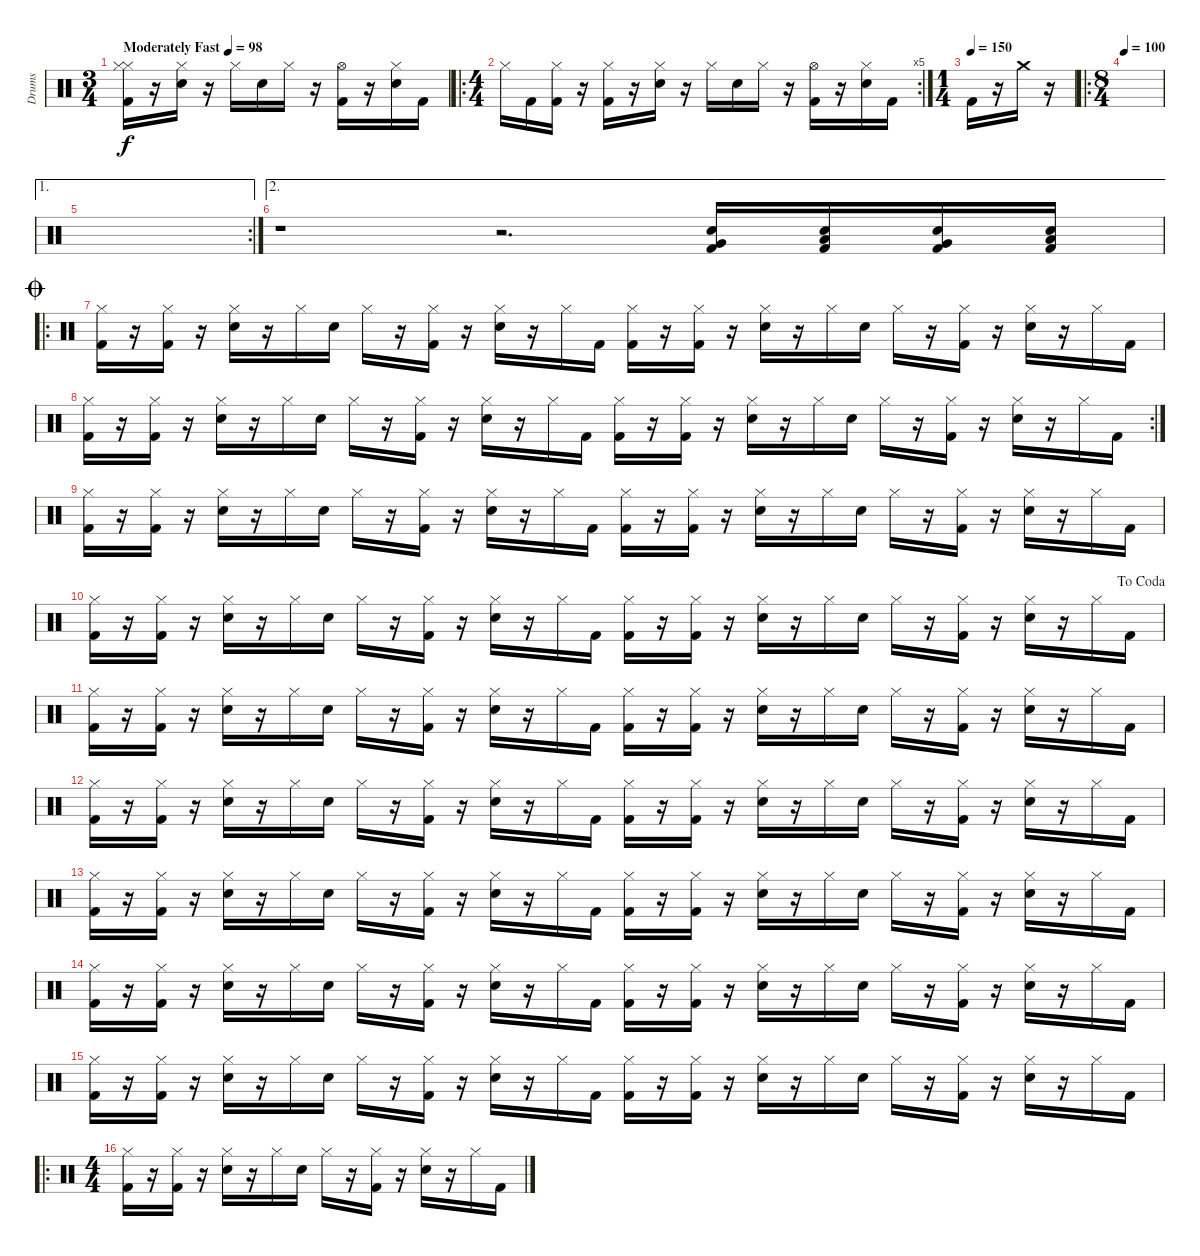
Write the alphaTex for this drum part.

\track ("Drums" "Drums") {instrument percussion}
\staff {score}
\articulation defaults
\ts (3 4)
\tempo (98 "Moderately Fast")
\clef neutral
\ks c
("Kick (hit) 2" "Hi-Hat (closed)" "Hi-Hat (closed)").16{dy f} r.16 ("Electric Snare (hit)" "Hi-Hat (closed)").16 r.16 "Hi-Hat (closed)".16 "Electric Snare (hit)".16 "Hi-Hat (closed)".16 r.16 ("Kick (hit) 2" "Hi-Hat (open)").16 r.16 ("Electric Snare (hit)" "Hi-Hat (closed)").16 "Kick (hit) 2".16 |
\ro
\rc 5
\ts (4 4)
"Hi-Hat (closed)".16 "Kick (hit) 2".16 ("Kick (hit) 2" "Hi-Hat (closed)").16 r.16 ("Kick (hit) 2" "Hi-Hat (closed)").16 r.16 ("Electric Snare (hit)" "Hi-Hat (closed)").16 r.16 "Hi-Hat (closed)".16 "Electric Snare (hit)".16 "Hi-Hat (closed)".16 r.16 ("Kick (hit) 2" "Hi-Hat (open)").16 r.16 ("Electric Snare (hit)" "Hi-Hat (closed)").16 "Kick (hit) 2".16 |
\ts (1 4)
\tempo (150)
"Kick (hit) 2".16 r.16 "Crash medium (hit)".16 r.16 |
\ro
\ts (8 4)
\tempo 100
|
\ae 1
\rc 2
|
\ae 2
r.1 r.2{d} ("Kick (hit) 2" "Electric Snare (hit)" "Very Low Tom (hit)").16 ("Kick (hit) 2" "Electric Snare (hit)" "Low Tom (hit)").16 ("Kick (hit) 2" "Electric Snare (hit)" "Very Low Tom (hit)").16 ("Kick (hit) 2" "Electric Snare (hit)" "Low Tom (hit)").16 |
\ro
\jump coda
("Kick (hit) 2" "Hi-Hat (closed)").16 r.16 ("Kick (hit) 2" "Hi-Hat (closed)").16 r.16 ("Electric Snare (hit)" "Hi-Hat (closed)").16 r.16 "Hi-Hat (closed)".16 "Electric Snare (hit)".16 "Hi-Hat (closed)".16 r.16 ("Kick (hit) 2" "Hi-Hat (closed)").16 r.16 ("Electric Snare (hit)" "Hi-Hat (closed)").16 r.16 "Hi-Hat (closed)".16 "Kick (hit) 2".16 ("Kick (hit) 2" "Hi-Hat (closed)").16 r.16 ("Kick (hit) 2" "Hi-Hat (closed)").16 r.16 ("Electric Snare (hit)" "Hi-Hat (closed)").16 r.16 "Hi-Hat (closed)".16 "Electric Snare (hit)".16 "Hi-Hat (closed)".16 r.16 ("Kick (hit) 2" "Hi-Hat (closed)").16 r.16 ("Electric Snare (hit)" "Hi-Hat (closed)").16 r.16 "Hi-Hat (closed)".16 "Kick (hit) 2".16 |
\rc 2
("Kick (hit) 2" "Hi-Hat (closed)").16 r.16 ("Kick (hit) 2" "Hi-Hat (closed)").16 r.16 ("Electric Snare (hit)" "Hi-Hat (closed)").16 r.16 "Hi-Hat (closed)".16 "Electric Snare (hit)".16 "Hi-Hat (closed)".16 r.16 ("Kick (hit) 2" "Hi-Hat (closed)").16 r.16 ("Electric Snare (hit)" "Hi-Hat (closed)").16 r.16 "Hi-Hat (closed)".16 "Kick (hit) 2".16 ("Kick (hit) 2" "Hi-Hat (closed)").16 r.16 ("Kick (hit) 2" "Hi-Hat (closed)").16 r.16 ("Electric Snare (hit)" "Hi-Hat (closed)").16 r.16 "Hi-Hat (closed)".16 "Electric Snare (hit)".16 "Hi-Hat (closed)".16 r.16 ("Kick (hit) 2" "Hi-Hat (closed)").16 r.16 ("Electric Snare (hit)" "Hi-Hat (closed)").16 r.16 "Hi-Hat (closed)".16 "Kick (hit) 2".16 |
("Kick (hit) 2" "Hi-Hat (closed)").16 r.16 ("Kick (hit) 2" "Hi-Hat (closed)").16 r.16 ("Electric Snare (hit)" "Hi-Hat (closed)").16 r.16 "Hi-Hat (closed)".16 "Electric Snare (hit)".16 "Hi-Hat (closed)".16 r.16 ("Kick (hit) 2" "Hi-Hat (closed)").16 r.16 ("Electric Snare (hit)" "Hi-Hat (closed)").16 r.16 "Hi-Hat (closed)".16 "Kick (hit) 2".16 ("Kick (hit) 2" "Hi-Hat (closed)").16 r.16 ("Kick (hit) 2" "Hi-Hat (closed)").16 r.16 ("Electric Snare (hit)" "Hi-Hat (closed)").16 r.16 "Hi-Hat (closed)".16 "Electric Snare (hit)".16 "Hi-Hat (closed)".16 r.16 ("Kick (hit) 2" "Hi-Hat (closed)").16 r.16 ("Electric Snare (hit)" "Hi-Hat (closed)").16 r.16 "Hi-Hat (closed)".16 "Kick (hit) 2".16 |
\jump dacoda
("Kick (hit) 2" "Hi-Hat (closed)").16 r.16 ("Kick (hit) 2" "Hi-Hat (closed)").16 r.16 ("Electric Snare (hit)" "Hi-Hat (closed)").16 r.16 "Hi-Hat (closed)".16 "Electric Snare (hit)".16 "Hi-Hat (closed)".16 r.16 ("Kick (hit) 2" "Hi-Hat (closed)").16 r.16 ("Electric Snare (hit)" "Hi-Hat (closed)").16 r.16 "Hi-Hat (closed)".16 "Kick (hit) 2".16 ("Kick (hit) 2" "Hi-Hat (closed)").16 r.16 ("Kick (hit) 2" "Hi-Hat (closed)").16 r.16 ("Electric Snare (hit)" "Hi-Hat (closed)").16 r.16 "Hi-Hat (closed)".16 "Electric Snare (hit)".16 "Hi-Hat (closed)".16 r.16 ("Kick (hit) 2" "Hi-Hat (closed)").16 r.16 ("Electric Snare (hit)" "Hi-Hat (closed)").16 r.16 "Hi-Hat (closed)".16 "Kick (hit) 2".16 |
("Kick (hit) 2" "Hi-Hat (closed)").16 r.16 ("Kick (hit) 2" "Hi-Hat (closed)").16 r.16 ("Electric Snare (hit)" "Hi-Hat (closed)").16 r.16 "Hi-Hat (closed)".16 "Electric Snare (hit)".16 "Hi-Hat (closed)".16 r.16 ("Kick (hit) 2" "Hi-Hat (closed)").16 r.16 ("Electric Snare (hit)" "Hi-Hat (closed)").16 r.16 "Hi-Hat (closed)".16 "Kick (hit) 2".16 ("Kick (hit) 2" "Hi-Hat (closed)").16 r.16 ("Kick (hit) 2" "Hi-Hat (closed)").16 r.16 ("Electric Snare (hit)" "Hi-Hat (closed)").16 r.16 "Hi-Hat (closed)".16 "Electric Snare (hit)".16 "Hi-Hat (closed)".16 r.16 ("Kick (hit) 2" "Hi-Hat (closed)").16 r.16 ("Electric Snare (hit)" "Hi-Hat (closed)").16 r.16 "Hi-Hat (closed)".16 "Kick (hit) 2".16 |
("Kick (hit) 2" "Hi-Hat (closed)").16 r.16 ("Kick (hit) 2" "Hi-Hat (closed)").16 r.16 ("Electric Snare (hit)" "Hi-Hat (closed)").16 r.16 "Hi-Hat (closed)".16 "Electric Snare (hit)".16 "Hi-Hat (closed)".16 r.16 ("Kick (hit) 2" "Hi-Hat (closed)").16 r.16 ("Electric Snare (hit)" "Hi-Hat (closed)").16 r.16 "Hi-Hat (closed)".16 "Kick (hit) 2".16 ("Kick (hit) 2" "Hi-Hat (closed)").16 r.16 ("Kick (hit) 2" "Hi-Hat (closed)").16 r.16 ("Electric Snare (hit)" "Hi-Hat (closed)").16 r.16 "Hi-Hat (closed)".16 "Electric Snare (hit)".16 "Hi-Hat (closed)".16 r.16 ("Kick (hit) 2" "Hi-Hat (closed)").16 r.16 ("Electric Snare (hit)" "Hi-Hat (closed)").16 r.16 "Hi-Hat (closed)".16 "Kick (hit) 2".16 |
("Kick (hit) 2" "Hi-Hat (closed)").16 r.16 ("Kick (hit) 2" "Hi-Hat (closed)").16 r.16 ("Electric Snare (hit)" "Hi-Hat (closed)").16 r.16 "Hi-Hat (closed)".16 "Electric Snare (hit)".16 "Hi-Hat (closed)".16 r.16 ("Kick (hit) 2" "Hi-Hat (closed)").16 r.16 ("Electric Snare (hit)" "Hi-Hat (closed)").16 r.16 "Hi-Hat (closed)".16 "Kick (hit) 2".16 ("Kick (hit) 2" "Hi-Hat (closed)").16 r.16 ("Kick (hit) 2" "Hi-Hat (closed)").16 r.16 ("Electric Snare (hit)" "Hi-Hat (closed)").16 r.16 "Hi-Hat (closed)".16 "Electric Snare (hit)".16 "Hi-Hat (closed)".16 r.16 ("Kick (hit) 2" "Hi-Hat (closed)").16 r.16 ("Electric Snare (hit)" "Hi-Hat (closed)").16 r.16 "Hi-Hat (closed)".16 "Kick (hit) 2".16 |
("Kick (hit) 2" "Hi-Hat (closed)").16 r.16 ("Kick (hit) 2" "Hi-Hat (closed)").16 r.16 ("Electric Snare (hit)" "Hi-Hat (closed)").16 r.16 "Hi-Hat (closed)".16 "Electric Snare (hit)".16 "Hi-Hat (closed)".16 r.16 ("Kick (hit) 2" "Hi-Hat (closed)").16 r.16 ("Electric Snare (hit)" "Hi-Hat (closed)").16 r.16 "Hi-Hat (closed)".16 "Kick (hit) 2".16 ("Kick (hit) 2" "Hi-Hat (closed)").16 r.16 ("Kick (hit) 2" "Hi-Hat (closed)").16 r.16 ("Electric Snare (hit)" "Hi-Hat (closed)").16 r.16 "Hi-Hat (closed)".16 "Electric Snare (hit)".16 "Hi-Hat (closed)".16 r.16 ("Kick (hit) 2" "Hi-Hat (closed)").16 r.16 ("Electric Snare (hit)" "Hi-Hat (closed)").16 r.16 "Hi-Hat (closed)".16 "Kick (hit) 2".16 |
("Kick (hit) 2" "Hi-Hat (closed)").16 r.16 ("Kick (hit) 2" "Hi-Hat (closed)").16 r.16 ("Electric Snare (hit)" "Hi-Hat (closed)").16 r.16 "Hi-Hat (closed)".16 "Electric Snare (hit)".16 "Hi-Hat (closed)".16 r.16 ("Kick (hit) 2" "Hi-Hat (closed)").16 r.16 ("Electric Snare (hit)" "Hi-Hat (closed)").16 r.16 "Hi-Hat (closed)".16 "Kick (hit) 2".16 ("Kick (hit) 2" "Hi-Hat (closed)").16 r.16 ("Kick (hit) 2" "Hi-Hat (closed)").16 r.16 ("Electric Snare (hit)" "Hi-Hat (closed)").16 r.16 "Hi-Hat (closed)".16 "Electric Snare (hit)".16 "Hi-Hat (closed)".16 r.16 ("Kick (hit) 2" "Hi-Hat (closed)").16 r.16 ("Electric Snare (hit)" "Hi-Hat (closed)").16 r.16 "Hi-Hat (closed)".16 "Kick (hit) 2".16 |
\ro
\ts (4 4)
("Kick (hit) 2" "Hi-Hat (closed)").16 r.16 ("Kick (hit) 2" "Hi-Hat (closed)").16 r.16 ("Electric Snare (hit)" "Hi-Hat (closed)").16 r.16 "Hi-Hat (closed)".16 "Electric Snare (hit)".16 "Hi-Hat (closed)".16 r.16 ("Kick (hit) 2" "Hi-Hat (closed)").16 r.16 ("Electric Snare (hit)" "Hi-Hat (closed)").16 r.16 "Hi-Hat (closed)".16 "Kick (hit) 2".16
